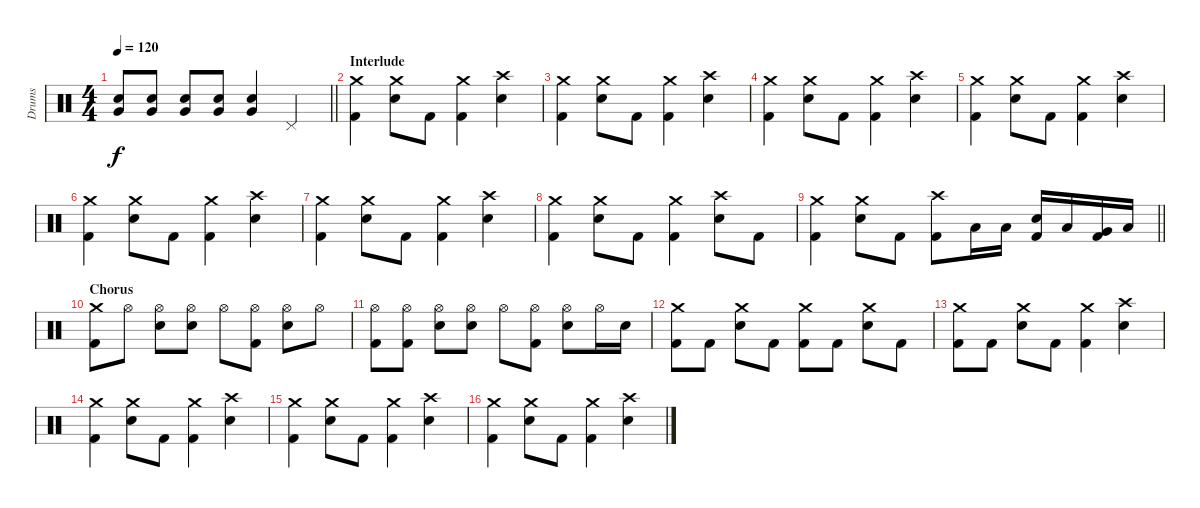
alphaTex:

\track ("Drums" "Drums") {instrument percussion}
\staff {score}
\articulation defaults
\ts (4 4)
\tempo 120
\clef neutral
\barLineRight lightlight
\ks c
("Very Low Tom (hit)" "Electric Snare (hit)").8{dy f} ("Very Low Tom (hit)" "Electric Snare (hit)").8 ("Very Low Tom (hit)" "Electric Snare (hit)").8 ("Very Low Tom (hit)" "Electric Snare (hit)").8 ("Very Low Tom (hit)" "Electric Snare (hit)").4 "Pedal Hi-Hat (hit)".4 |
\section ("" "Interlude")
("Crash medium (hit)" "Kick (hit) 2").4 ("Crash medium (hit)" "Electric Snare (hit)").8 "Kick (hit) 2".8 ("Crash medium (hit)" "Kick (hit) 2").4 ("Crash high (hit)" "Electric Snare (hit)").4 |
("Crash medium (hit)" "Kick (hit) 2").4 ("Crash medium (hit)" "Electric Snare (hit)").8 "Kick (hit) 2".8 ("Crash medium (hit)" "Kick (hit) 2").4 ("Crash high (hit)" "Electric Snare (hit)").4 |
("Crash medium (hit)" "Kick (hit) 2").4 ("Crash medium (hit)" "Electric Snare (hit)").8 "Kick (hit) 2".8 ("Crash medium (hit)" "Kick (hit) 2").4 ("Crash high (hit)" "Electric Snare (hit)").4 |
("Crash medium (hit)" "Kick (hit) 2").4 ("Crash medium (hit)" "Electric Snare (hit)").8 "Kick (hit) 2".8 ("Crash medium (hit)" "Kick (hit) 2").4 ("Crash high (hit)" "Electric Snare (hit)").4 |
("Crash medium (hit)" "Kick (hit) 2").4 ("Crash medium (hit)" "Electric Snare (hit)").8 "Kick (hit) 2".8 ("Crash medium (hit)" "Kick (hit) 2").4 ("Crash high (hit)" "Electric Snare (hit)").4 |
("Crash medium (hit)" "Kick (hit) 2").4 ("Crash medium (hit)" "Electric Snare (hit)").8 "Kick (hit) 2".8 ("Crash medium (hit)" "Kick (hit) 2").4 ("Crash high (hit)" "Electric Snare (hit)").4 |
("Crash medium (hit)" "Kick (hit) 2").4 ("Crash medium (hit)" "Electric Snare (hit)").8 "Kick (hit) 2".8 ("Crash medium (hit)" "Kick (hit) 2").4 ("Crash high (hit)" "Electric Snare (hit)").8 "Kick (hit) 2".8 |
\barLineRight lightlight
("Crash medium (hit)" "Kick (hit) 2").4 ("Crash medium (hit)" "Electric Snare (hit)").8 "Kick (hit) 2".8 ("Crash high (hit)" "Kick (hit) 2").8 "Low Tom (hit)".16 "Low Tom (hit)".16 ("Electric Snare (hit)" "Kick (hit) 2").16 "Low Tom (hit)".16 ("Very Low Tom (hit)" "Kick (hit) 2").16 "Low Floor Tom (hit)".16 |
\section ("" "Chorus")
("Crash medium (hit)" "Kick (hit) 2").8 "Hi-Hat (open)".8 ("Hi-Hat (open)" "Electric Snare (hit)").8 ("Hi-Hat (open)" "Electric Snare (hit)").8 "Hi-Hat (open)".8 ("Hi-Hat (open)" "Kick (hit) 2").8 ("Hi-Hat (open)" "Electric Snare (hit)").8 "Hi-Hat (open)".8 |
("Hi-Hat (open)" "Kick (hit) 2").8 ("Hi-Hat (open)" "Kick (hit) 2").8 ("Hi-Hat (open)" "Electric Snare (hit)").8 ("Hi-Hat (open)" "Electric Snare (hit)").8 "Hi-Hat (open)".8 ("Hi-Hat (open)" "Kick (hit) 2").8 ("Hi-Hat (open)" "Electric Snare (hit)").8 "Hi-Hat (open)".16 "Electric Snare (hit)".16 |
("Crash medium (hit)" "Kick (hit) 2").8 "Kick (hit) 2".8 ("Crash medium (hit)" "Electric Snare (hit)").8 "Kick (hit) 2".8 ("Crash medium (hit)" "Kick (hit) 2").8 "Kick (hit) 2".8 ("Crash medium (hit)" "Electric Snare (hit)").8 "Kick (hit) 2".8 |
("Crash medium (hit)" "Kick (hit) 2").8 "Kick (hit) 2".8 ("Crash medium (hit)" "Electric Snare (hit)").8 "Kick (hit) 2".8 ("Crash medium (hit)" "Kick (hit) 2").4 ("Crash high (hit)" "Electric Snare (hit)").4 |
("Crash medium (hit)" "Kick (hit) 2").4 ("Crash medium (hit)" "Electric Snare (hit)").8 "Kick (hit) 2".8 ("Crash medium (hit)" "Kick (hit) 2").4 ("Crash high (hit)" "Electric Snare (hit)").4 |
("Crash medium (hit)" "Kick (hit) 2").4 ("Crash medium (hit)" "Electric Snare (hit)").8 "Kick (hit) 2".8 ("Crash medium (hit)" "Kick (hit) 2").4 ("Crash high (hit)" "Electric Snare (hit)").4 |
("Crash medium (hit)" "Kick (hit) 2").4 ("Crash medium (hit)" "Electric Snare (hit)").8 "Kick (hit) 2".8 ("Crash medium (hit)" "Kick (hit) 2").4 ("Crash high (hit)" "Electric Snare (hit)").4
